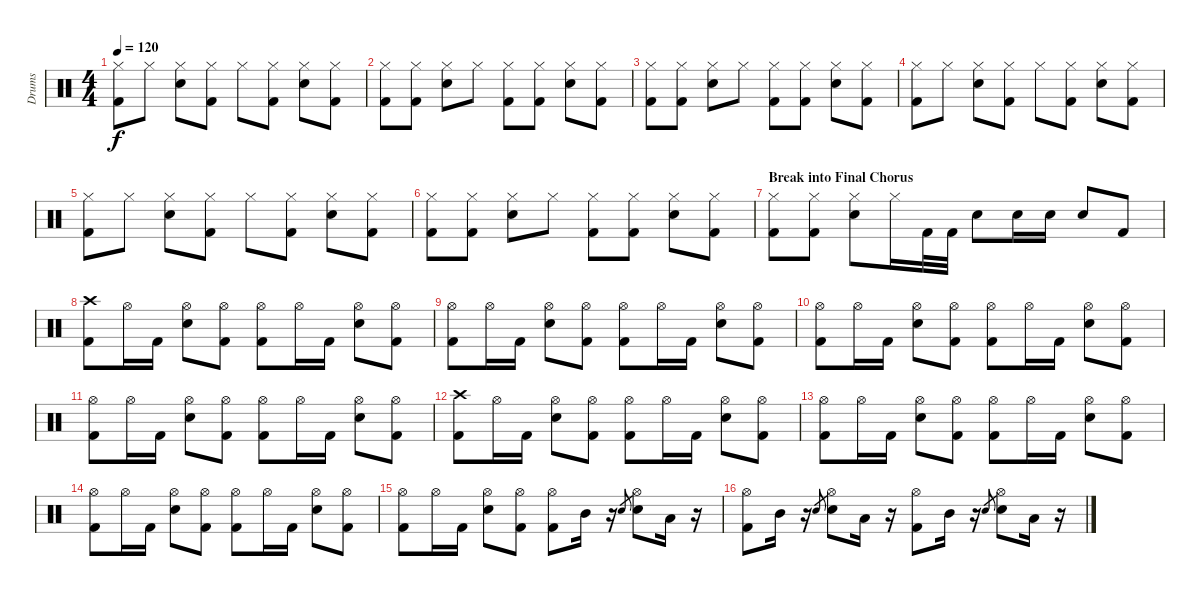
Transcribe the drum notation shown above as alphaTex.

\track ("Drums" "Drums") {instrument percussion}
\staff {score}
\articulation defaults
\ts (4 4)
\tempo 120
\clef neutral
\ks c
("Hi-Hat (closed)" "Kick (hit) 2").8{dy f} "Hi-Hat (closed)".8 ("Hi-Hat (closed)" "Electric Snare (hit)").8 ("Hi-Hat (closed)" "Kick (hit) 2").8 "Hi-Hat (closed)".8 ("Hi-Hat (closed)" "Kick (hit) 2").8 ("Hi-Hat (closed)" "Electric Snare (hit)").8 ("Hi-Hat (closed)" "Kick (hit) 2").8 |
("Hi-Hat (closed)" "Kick (hit) 2").8 ("Hi-Hat (closed)" "Kick (hit) 2").8 ("Hi-Hat (closed)" "Electric Snare (hit)").8 "Hi-Hat (closed)".8 ("Hi-Hat (closed)" "Kick (hit) 2").8 ("Hi-Hat (closed)" "Kick (hit) 2").8 ("Hi-Hat (closed)" "Electric Snare (hit)").8 ("Hi-Hat (closed)" "Kick (hit) 2").8 |
("Hi-Hat (closed)" "Kick (hit) 2").8 ("Hi-Hat (closed)" "Kick (hit) 2").8 ("Hi-Hat (closed)" "Electric Snare (hit)").8 "Hi-Hat (closed)".8 ("Hi-Hat (closed)" "Kick (hit) 2").8 ("Hi-Hat (closed)" "Kick (hit) 2").8 ("Hi-Hat (closed)" "Electric Snare (hit)").8 ("Hi-Hat (closed)" "Kick (hit) 2").8 |
("Hi-Hat (closed)" "Kick (hit) 2").8 "Hi-Hat (closed)".8 ("Hi-Hat (closed)" "Electric Snare (hit)").8 ("Hi-Hat (closed)" "Kick (hit) 2").8 "Hi-Hat (closed)".8 ("Hi-Hat (closed)" "Kick (hit) 2").8 ("Hi-Hat (closed)" "Electric Snare (hit)").8 ("Hi-Hat (closed)" "Kick (hit) 2").8 |
("Hi-Hat (closed)" "Kick (hit) 2").8 "Hi-Hat (closed)".8 ("Hi-Hat (closed)" "Electric Snare (hit)").8 ("Hi-Hat (closed)" "Kick (hit) 2").8 "Hi-Hat (closed)".8 ("Hi-Hat (closed)" "Kick (hit) 2").8 ("Hi-Hat (closed)" "Electric Snare (hit)").8 ("Hi-Hat (closed)" "Kick (hit) 2").8 |
("Hi-Hat (closed)" "Kick (hit) 2").8 ("Hi-Hat (closed)" "Kick (hit) 2").8 ("Hi-Hat (closed)" "Electric Snare (hit)").8 "Hi-Hat (closed)".8 ("Hi-Hat (closed)" "Kick (hit) 2").8 ("Hi-Hat (closed)" "Kick (hit) 2").8 ("Hi-Hat (closed)" "Electric Snare (hit)").8 ("Hi-Hat (closed)" "Kick (hit) 2").8 |
\section ("" "Break into Final Chorus")
("Hi-Hat (closed)" "Kick (hit) 2").8 ("Hi-Hat (closed)" "Kick (hit) 2").8 ("Hi-Hat (closed)" "Electric Snare (hit)").8 "Hi-Hat (closed)".16 "Kick (hit) 2".32 "Kick (hit) 2".32 "Electric Snare (hit)".8 "Electric Snare (hit)".16 "Electric Snare (hit)".16 "Electric Snare (hit)".8 "Kick (hit) 2".8 |
("Crash high (hit)" "Kick (hit) 2").8 "Hi-Hat (open)".16 "Kick (hit) 2".16 ("Hi-Hat (open)" "Electric Snare (hit)").8 ("Hi-Hat (open)" "Kick (hit) 2").8 ("Hi-Hat (open)" "Kick (hit) 2").8 "Hi-Hat (open)".16 "Kick (hit) 2".16 ("Hi-Hat (open)" "Electric Snare (hit)").8 ("Hi-Hat (open)" "Kick (hit) 2").8 |
("Hi-Hat (open)" "Kick (hit) 2").8 "Hi-Hat (open)".16 "Kick (hit) 2".16 ("Hi-Hat (open)" "Electric Snare (hit)").8 ("Hi-Hat (open)" "Kick (hit) 2").8 ("Hi-Hat (open)" "Kick (hit) 2").8 "Hi-Hat (open)".16 "Kick (hit) 2".16 ("Hi-Hat (open)" "Electric Snare (hit)").8 ("Hi-Hat (open)" "Kick (hit) 2").8 |
("Hi-Hat (open)" "Kick (hit) 2").8 "Hi-Hat (open)".16 "Kick (hit) 2".16 ("Hi-Hat (open)" "Electric Snare (hit)").8 ("Hi-Hat (open)" "Kick (hit) 2").8 ("Hi-Hat (open)" "Kick (hit) 2").8 "Hi-Hat (open)".16 "Kick (hit) 2".16 ("Hi-Hat (open)" "Electric Snare (hit)").8 ("Hi-Hat (open)" "Kick (hit) 2").8 |
("Hi-Hat (open)" "Kick (hit) 2").8 "Hi-Hat (open)".16 "Kick (hit) 2".16 ("Hi-Hat (open)" "Electric Snare (hit)").8 ("Hi-Hat (open)" "Kick (hit) 2").8 ("Hi-Hat (open)" "Kick (hit) 2").8 "Hi-Hat (open)".16 "Kick (hit) 2".16 ("Hi-Hat (open)" "Electric Snare (hit)").8 ("Hi-Hat (open)" "Kick (hit) 2").8 |
("Crash high (hit)" "Kick (hit) 2").8 "Hi-Hat (open)".16 "Kick (hit) 2".16 ("Hi-Hat (open)" "Electric Snare (hit)").8 ("Hi-Hat (open)" "Kick (hit) 2").8 ("Hi-Hat (open)" "Kick (hit) 2").8 "Hi-Hat (open)".16 "Kick (hit) 2".16 ("Hi-Hat (open)" "Electric Snare (hit)").8 ("Hi-Hat (open)" "Kick (hit) 2").8 |
("Hi-Hat (open)" "Kick (hit) 2").8 "Hi-Hat (open)".16 "Kick (hit) 2".16 ("Hi-Hat (open)" "Electric Snare (hit)").8 ("Hi-Hat (open)" "Kick (hit) 2").8 ("Hi-Hat (open)" "Kick (hit) 2").8 "Hi-Hat (open)".16 "Kick (hit) 2".16 ("Hi-Hat (open)" "Electric Snare (hit)").8 ("Hi-Hat (open)" "Kick (hit) 2").8 |
("Hi-Hat (open)" "Kick (hit) 2").8 "Hi-Hat (open)".16 "Kick (hit) 2".16 ("Hi-Hat (open)" "Electric Snare (hit)").8 ("Hi-Hat (open)" "Kick (hit) 2").8 ("Hi-Hat (open)" "Kick (hit) 2").8 "Hi-Hat (open)".16 "Kick (hit) 2".16 ("Hi-Hat (open)" "Electric Snare (hit)").8 ("Hi-Hat (open)" "Kick (hit) 2").8 |
("Hi-Hat (open)" "Kick (hit) 2").8 "Hi-Hat (open)".16 "Kick (hit) 2".16 ("Hi-Hat (open)" "Electric Snare (hit)").8 ("Hi-Hat (open)" "Kick (hit) 2").8 ("Hi-Hat (open)" "Kick (hit) 2").8 "Mid Tom (hit)".16 r.16 "Electric Snare (hit)".8{gr} ("Hi-Hat (open)" "Electric Snare (hit)").8 "Low Tom (hit)".16 r.16 |
("Hi-Hat (open)" "Kick (hit) 2").8 "Mid Tom (hit)".16 r.16 "Electric Snare (hit)".8{gr} ("Hi-Hat (open)" "Electric Snare (hit)").8 "Low Tom (hit)".16 r.16 ("Hi-Hat (open)" "Kick (hit) 2").8 "Mid Tom (hit)".16 r.16 "Electric Snare (hit)".8{gr} ("Hi-Hat (open)" "Electric Snare (hit)").8 "Low Tom (hit)".16 r.16
